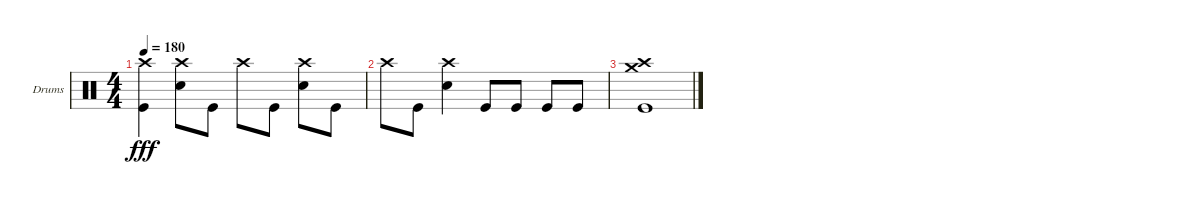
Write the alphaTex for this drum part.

\defaultSystemsLayout 4
\bracketExtendMode groupsimilarinstruments
\firstSystemTrackNameOrientation horizontal
\otherSystemsTrackNameOrientation horizontal
\track ("Drumkit" "Drums") {instrument percussion}
\staff {score}
\articulation defaults
\ts (4 4)
\tempo 180
\clef neutral
\ks c
("Kick (hit)" "Crash high (hit)").4{dy fff} ("Snare (hit) 2" "Crash high (hit)").8 "Kick (hit)".8 "Crash high (hit)".8 "Kick (hit)".8 ("Snare (hit) 2" "Crash high (hit)").8 "Kick (hit)".8 |
"Crash high (hit)".8 "Kick (hit)".8 ("Snare (hit) 2" "Crash high (hit)").4 "Kick (hit)".8 "Kick (hit)".8 "Kick (hit)".8 "Kick (hit)".8 |
("Kick (hit)" "Crash high (hit)" "Crash medium (hit)").1
